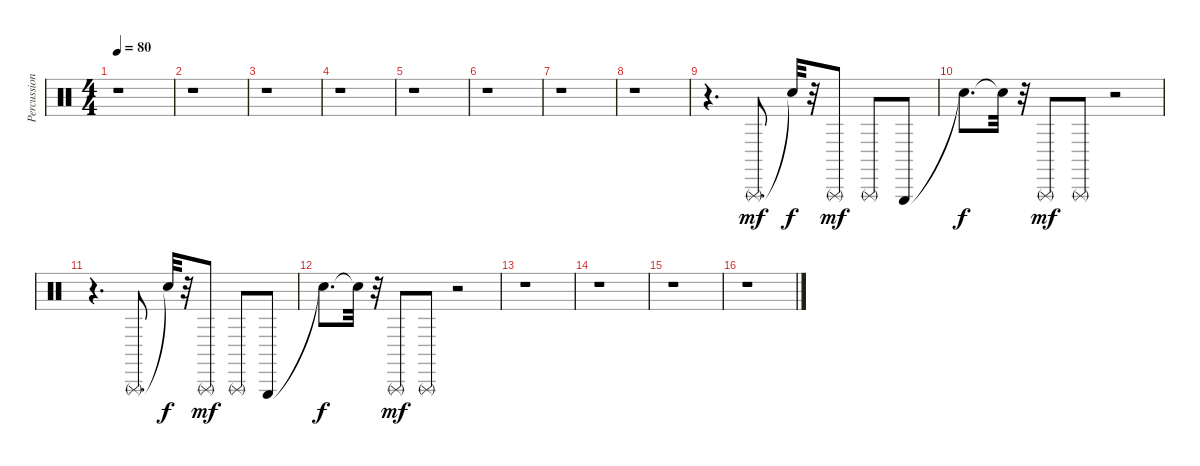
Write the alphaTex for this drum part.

\track ("Percussion" "Percussion") {instrument percussion}
\staff {score}
\articulation defaults
\ts (4 4)
\tempo 80
\clef neutral
\ks c
r.1{dy ff} |
r.1 |
r.1 |
r.1 |
r.1 |
r.1 |
r.1 |
r.1 |
r.4{d} "Triangle (rnute)".8{d dy mf} "Snare (hit)"{t}.32{dy f} r.32 "Triangle (rnute)".8{dy mf} "Triangle (rnute)".8 "Triangle (hit)".8 |
"Snare (hit)"{t}.8{d dy f} "Snare (hit)"{t}.32 r.32 "Triangle (rnute)".8{dy mf} "Triangle (rnute)".8 r.2 |
r.4{d} "Triangle (rnute)".8{d} "Snare (hit)"{t}.32{dy f} r.32 "Triangle (rnute)".8{dy mf} "Triangle (rnute)".8 "Triangle (hit)".8 |
"Snare (hit)"{t}.8{d dy f} "Snare (hit)"{t}.32 r.32 "Triangle (rnute)".8{dy mf} "Triangle (rnute)".8 r.2 |
r.1 |
r.1 |
r.1 |
r.1
